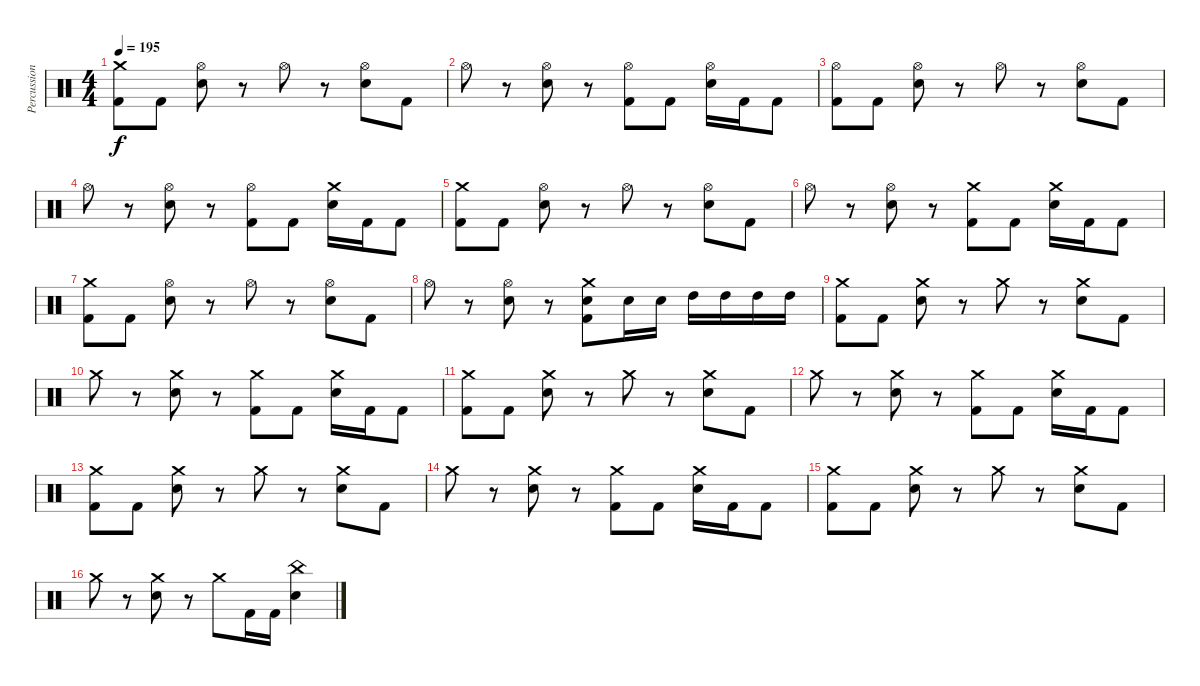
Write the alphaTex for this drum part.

\track ("Percussion" "Percussion") {instrument percussion}
\staff {score}
\articulation defaults
\ts (4 4)
\tempo 195
\clef neutral
\ks c
("Crash medium (hit)" "Kick (hit) 2").8{dy f} "Kick (hit) 2".8 ("Hi-Hat (open)" "Snare (hit) 2").8 r.8 "Hi-Hat (open)".8 r.8 ("Hi-Hat (open)" "Snare (hit) 2").8 "Kick (hit) 2".8 |
"Hi-Hat (open)".8 r.8 ("Hi-Hat (open)" "Snare (hit) 2").8 r.8 ("Hi-Hat (open)" "Kick (hit) 2").8 "Kick (hit) 2".8 ("Hi-Hat (open)" "Snare (hit) 2").16 "Kick (hit) 2".16 "Kick (hit) 2".8 |
("Hi-Hat (open)" "Kick (hit) 2").8 "Kick (hit) 2".8 ("Hi-Hat (open)" "Snare (hit) 2").8 r.8 "Hi-Hat (open)".8 r.8 ("Hi-Hat (open)" "Snare (hit) 2").8 "Kick (hit) 2".8 |
"Hi-Hat (open)".8 r.8 ("Hi-Hat (open)" "Snare (hit) 2").8 r.8 ("Hi-Hat (open)" "Kick (hit) 2").8 "Kick (hit) 2".8 ("Crash medium (hit)" "Snare (hit) 2").16 "Kick (hit) 2".16 "Kick (hit) 2".8 |
("Crash medium (hit)" "Kick (hit) 2").8 "Kick (hit) 2".8 ("Hi-Hat (open)" "Snare (hit) 2").8 r.8 "Hi-Hat (open)".8 r.8 ("Hi-Hat (open)" "Snare (hit) 2").8 "Kick (hit) 2".8 |
"Hi-Hat (open)".8 r.8 ("Hi-Hat (open)" "Snare (hit) 2").8 r.8 ("Crash medium (hit)" "Kick (hit) 2").8 "Kick (hit) 2".8 ("Crash medium (hit)" "Snare (hit) 2").16 "Kick (hit) 2".16 "Kick (hit) 2".8 |
("Crash medium (hit)" "Kick (hit) 2").8 "Kick (hit) 2".8 ("Hi-Hat (open)" "Snare (hit) 2").8 r.8 "Hi-Hat (open)".8 r.8 ("Hi-Hat (open)" "Snare (hit) 2").8 "Kick (hit) 2".8 |
"Hi-Hat (open)".8 r.8 ("Hi-Hat (open)" "Snare (hit) 2").8 r.8 ("Crash medium (hit)" "Snare (hit) 2" "Kick (hit) 2").8 "Snare (hit) 2".16 "Snare (hit) 2".16 "High Tom (hit)".16 "High Tom (hit)".16 "High Tom (hit)".16 "High Tom (hit)".16 |
("Crash medium (hit)" "Kick (hit) 2").8 "Kick (hit) 2".8 ("Crash medium (hit)" "Snare (hit) 2").8 r.8 "Crash medium (hit)".8 r.8 ("Crash medium (hit)" "Snare (hit) 2").8 "Kick (hit) 2".8 |
"Crash medium (hit)".8 r.8 ("Crash medium (hit)" "Snare (hit) 2").8 r.8 ("Crash medium (hit)" "Kick (hit) 2").8 "Kick (hit) 2".8 ("Crash medium (hit)" "Snare (hit) 2").16 "Kick (hit) 2".16 "Kick (hit) 2".8 |
("Crash medium (hit)" "Kick (hit) 2").8 "Kick (hit) 2".8 ("Crash medium (hit)" "Snare (hit) 2").8 r.8 "Crash medium (hit)".8 r.8 ("Crash medium (hit)" "Snare (hit) 2").8 "Kick (hit) 2".8 |
"Crash medium (hit)".8 r.8 ("Crash medium (hit)" "Snare (hit) 2").8 r.8 ("Crash medium (hit)" "Kick (hit) 2").8 "Kick (hit) 2".8 ("Crash medium (hit)" "Snare (hit) 2").16 "Kick (hit) 2".16 "Kick (hit) 2".8 |
("Crash medium (hit)" "Kick (hit) 2").8 "Kick (hit) 2".8 ("Crash medium (hit)" "Snare (hit) 2").8 r.8 "Crash medium (hit)".8 r.8 ("Crash medium (hit)" "Snare (hit) 2").8 "Kick (hit) 2".8 |
"Crash medium (hit)".8 r.8 ("Crash medium (hit)" "Snare (hit) 2").8 r.8 ("Crash medium (hit)" "Kick (hit) 2").8 "Kick (hit) 2".8 ("Crash medium (hit)" "Snare (hit) 2").16 "Kick (hit) 2".16 "Kick (hit) 2".8 |
("Crash medium (hit)" "Kick (hit) 2").8 "Kick (hit) 2".8 ("Crash medium (hit)" "Snare (hit) 2").8 r.8 "Crash medium (hit)".8 r.8 ("Crash medium (hit)" "Snare (hit) 2").8 "Kick (hit) 2".8 |
"Crash medium (hit)".8 r.8 ("Crash medium (hit)" "Snare (hit) 2").8 r.8 "Crash medium (hit)".8 "Kick (hit) 2".16 "Kick (hit) 2".16 ("China (hit)" "Snare (hit) 2").4
